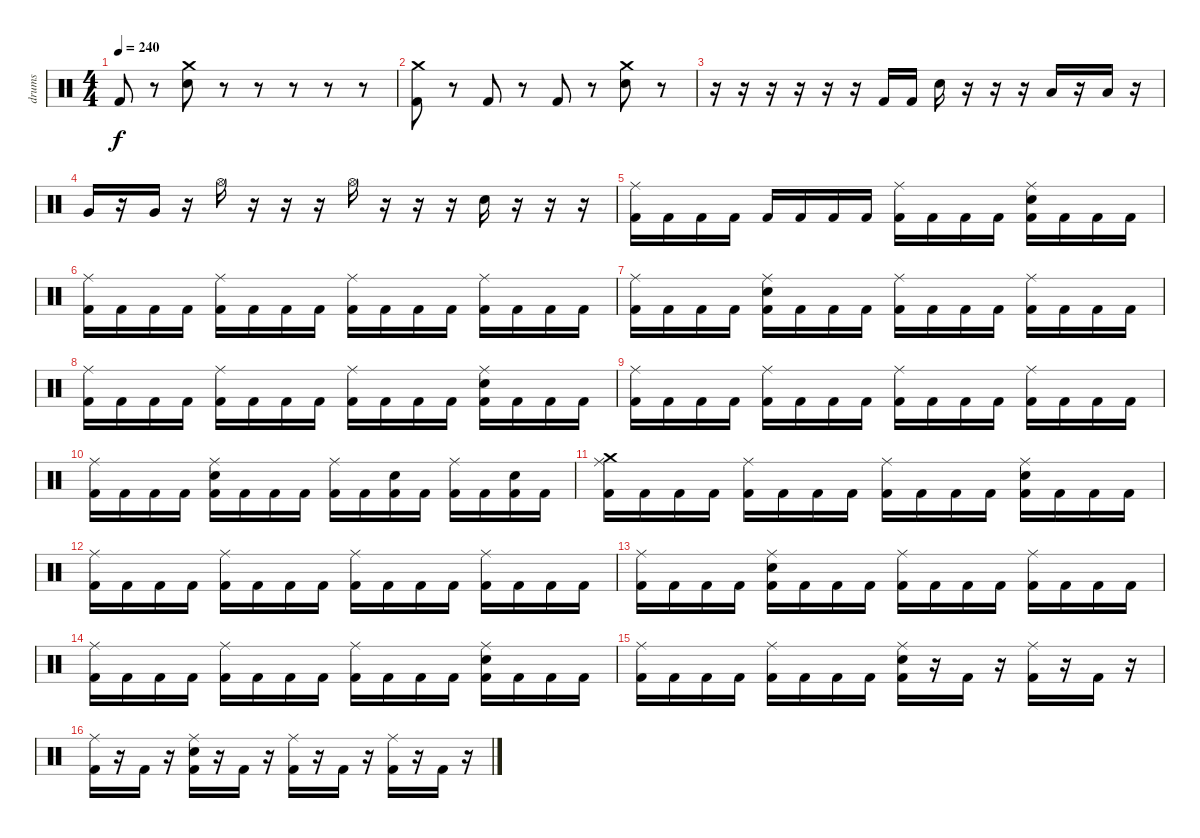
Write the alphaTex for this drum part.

\track ("drums" "drums") {instrument percussion}
\staff {score}
\articulation defaults
\ts (4 4)
\tempo 240
\clef neutral
\ks c "Kick (hit) 2".8{dy f}
r.8 ("Crash medium (hit)" "Snare (hit) 2").8 r.8 r.8 r.8 r.8 r.8 |
("Crash medium (hit)" "Kick (hit) 2").8 r.8 "Kick (hit) 2".8 r.8 "Kick (hit) 2".8 r.8 ("Crash medium (hit)" "Snare (hit) 2").8 r.8 |
r.16 r.16 r.16 r.16 r.16 r.16 "Kick (hit) 2".16 "Kick (hit) 2".16 "Snare (hit) 2".16 r.16 r.16 r.16 "Low Tom (hit)".16 r.16 "Low Tom (hit)".16 r.16 |
"Very Low Tom (hit)".16 r.16 "Very Low Tom (hit)".16 r.16 "Hi-Hat (open)".16 r.16 r.16 r.16 "Hi-Hat (open)".16 r.16 r.16 r.16 "Snare (hit) 2".16 r.16 r.16 r.16 |
("Ride (middle)" "Kick (hit) 2").16 "Kick (hit) 2".16 "Kick (hit) 2".16 "Kick (hit) 2".16 "Kick (hit) 2".16 "Kick (hit) 2".16 "Kick (hit) 2".16 "Kick (hit) 2".16 ("Ride (middle)" "Kick (hit) 2").16 "Kick (hit) 2".16 "Kick (hit) 2".16 "Kick (hit) 2".16 ("Ride (middle)" "Snare (hit) 2" "Kick (hit) 2").16 "Kick (hit) 2".16 "Kick (hit) 2".16 "Kick (hit) 2".16 |
("Ride (middle)" "Kick (hit) 2").16 "Kick (hit) 2".16 "Kick (hit) 2".16 "Kick (hit) 2".16 ("Ride (middle)" "Kick (hit) 2").16 "Kick (hit) 2".16 "Kick (hit) 2".16 "Kick (hit) 2".16 ("Ride (middle)" "Kick (hit) 2").16 "Kick (hit) 2".16 "Kick (hit) 2".16 "Kick (hit) 2".16 ("Ride (middle)" "Kick (hit) 2").16 "Kick (hit) 2".16 "Kick (hit) 2".16 "Kick (hit) 2".16 |
("Ride (middle)" "Kick (hit) 2").16 "Kick (hit) 2".16 "Kick (hit) 2".16 "Kick (hit) 2".16 ("Ride (middle)" "Snare (hit) 2" "Kick (hit) 2").16 "Kick (hit) 2".16 "Kick (hit) 2".16 "Kick (hit) 2".16 ("Ride (middle)" "Kick (hit) 2").16 "Kick (hit) 2".16 "Kick (hit) 2".16 "Kick (hit) 2".16 ("Ride (middle)" "Kick (hit) 2").16 "Kick (hit) 2".16 "Kick (hit) 2".16 "Kick (hit) 2".16 |
("Ride (middle)" "Kick (hit) 2").16 "Kick (hit) 2".16 "Kick (hit) 2".16 "Kick (hit) 2".16 ("Ride (middle)" "Kick (hit) 2").16 "Kick (hit) 2".16 "Kick (hit) 2".16 "Kick (hit) 2".16 ("Ride (middle)" "Kick (hit) 2").16 "Kick (hit) 2".16 "Kick (hit) 2".16 "Kick (hit) 2".16 ("Ride (middle)" "Snare (hit) 2" "Kick (hit) 2").16 "Kick (hit) 2".16 "Kick (hit) 2".16 "Kick (hit) 2".16 |
("Ride (middle)" "Kick (hit) 2").16 "Kick (hit) 2".16 "Kick (hit) 2".16 "Kick (hit) 2".16 ("Ride (middle)" "Kick (hit) 2").16 "Kick (hit) 2".16 "Kick (hit) 2".16 "Kick (hit) 2".16 ("Ride (middle)" "Kick (hit) 2").16 "Kick (hit) 2".16 "Kick (hit) 2".16 "Kick (hit) 2".16 ("Ride (middle)" "Kick (hit) 2").16 "Kick (hit) 2".16 "Kick (hit) 2".16 "Kick (hit) 2".16 |
("Ride (middle)" "Kick (hit) 2").16 "Kick (hit) 2".16 "Kick (hit) 2".16 "Kick (hit) 2".16 ("Ride (middle)" "Snare (hit) 2" "Kick (hit) 2").16 "Kick (hit) 2".16 "Kick (hit) 2".16 "Kick (hit) 2".16 ("Ride (middle)" "Kick (hit) 2").16 "Kick (hit) 2".16 ("Snare (hit) 2" "Kick (hit) 2").16 "Kick (hit) 2".16 ("Ride (middle)" "Kick (hit) 2").16 "Kick (hit) 2".16 ("Snare (hit) 2" "Kick (hit) 2").16 "Kick (hit) 2".16 |
("Ride (middle)" "Crash medium (hit)" "Kick (hit) 2").16 "Kick (hit) 2".16 "Kick (hit) 2".16 "Kick (hit) 2".16 ("Ride (middle)" "Kick (hit) 2").16 "Kick (hit) 2".16 "Kick (hit) 2".16 "Kick (hit) 2".16 ("Ride (middle)" "Kick (hit) 2").16 "Kick (hit) 2".16 "Kick (hit) 2".16 "Kick (hit) 2".16 ("Ride (middle)" "Snare (hit) 2" "Kick (hit) 2").16 "Kick (hit) 2".16 "Kick (hit) 2".16 "Kick (hit) 2".16 |
("Ride (middle)" "Kick (hit) 2").16 "Kick (hit) 2".16 "Kick (hit) 2".16 "Kick (hit) 2".16 ("Ride (middle)" "Kick (hit) 2").16 "Kick (hit) 2".16 "Kick (hit) 2".16 "Kick (hit) 2".16 ("Ride (middle)" "Kick (hit) 2").16 "Kick (hit) 2".16 "Kick (hit) 2".16 "Kick (hit) 2".16 ("Ride (middle)" "Kick (hit) 2").16 "Kick (hit) 2".16 "Kick (hit) 2".16 "Kick (hit) 2".16 |
("Ride (middle)" "Kick (hit) 2").16 "Kick (hit) 2".16 "Kick (hit) 2".16 "Kick (hit) 2".16 ("Ride (middle)" "Snare (hit) 2" "Kick (hit) 2").16 "Kick (hit) 2".16 "Kick (hit) 2".16 "Kick (hit) 2".16 ("Ride (middle)" "Kick (hit) 2").16 "Kick (hit) 2".16 "Kick (hit) 2".16 "Kick (hit) 2".16 ("Ride (middle)" "Kick (hit) 2").16 "Kick (hit) 2".16 "Kick (hit) 2".16 "Kick (hit) 2".16 |
("Ride (middle)" "Kick (hit) 2").16 "Kick (hit) 2".16 "Kick (hit) 2".16 "Kick (hit) 2".16 ("Ride (middle)" "Kick (hit) 2").16 "Kick (hit) 2".16 "Kick (hit) 2".16 "Kick (hit) 2".16 ("Ride (middle)" "Kick (hit) 2").16 "Kick (hit) 2".16 "Kick (hit) 2".16 "Kick (hit) 2".16 ("Ride (middle)" "Snare (hit) 2" "Kick (hit) 2").16 "Kick (hit) 2".16 "Kick (hit) 2".16 "Kick (hit) 2".16 |
("Ride (middle)" "Kick (hit) 2").16 "Kick (hit) 2".16 "Kick (hit) 2".16 "Kick (hit) 2".16 ("Ride (middle)" "Kick (hit) 2").16 "Kick (hit) 2".16 "Kick (hit) 2".16 "Kick (hit) 2".16 ("Ride (middle)" "Snare (hit) 2" "Kick (hit) 2").16 r.16 "Kick (hit) 2".16 r.16 ("Ride (middle)" "Kick (hit) 2").16 r.16 "Kick (hit) 2".16 r.16 |
("Ride (middle)" "Kick (hit) 2").16 r.16 "Kick (hit) 2".16 r.16 ("Ride (middle)" "Snare (hit) 2" "Kick (hit) 2").16 r.16 "Kick (hit) 2".16 r.16 ("Ride (middle)" "Kick (hit) 2").16 r.16 "Kick (hit) 2".16 r.16 ("Ride (middle)" "Kick (hit) 2").16 r.16 "Kick (hit) 2".16 r.16
